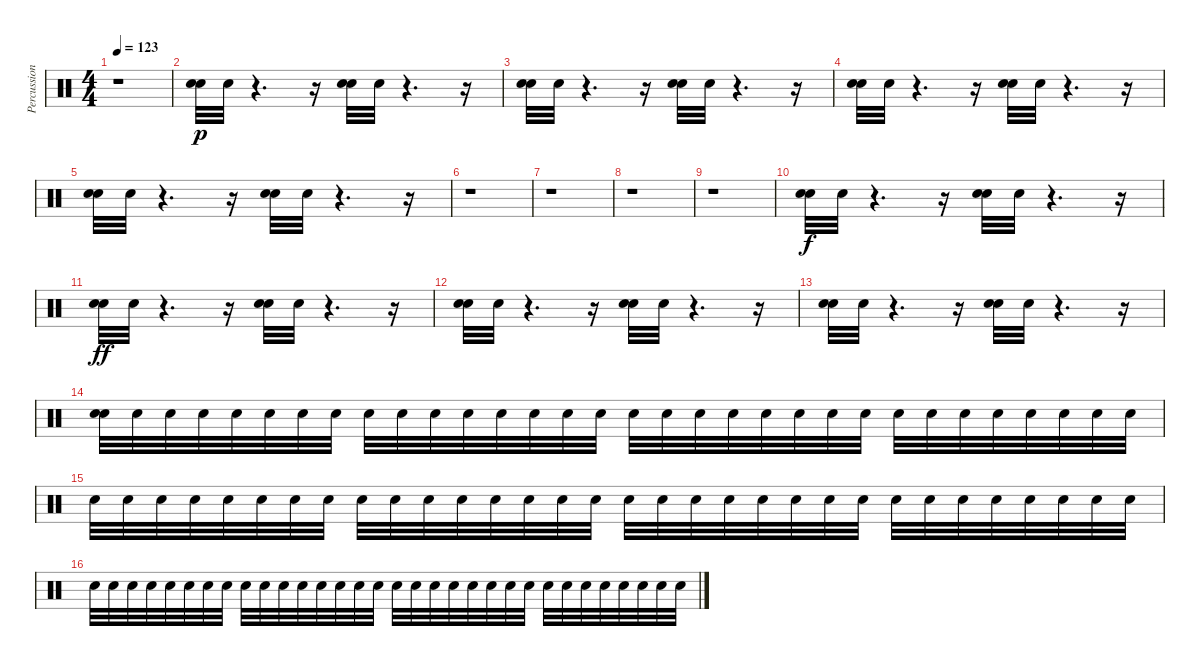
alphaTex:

\track ("Percussion" "Percussion") {instrument percussion}
\staff {score}
\articulation defaults
\ts (4 4)
\tempo 123
\clef neutral
\ks c
r.1{dy mp} |
("Snare (hit) 2" "Snare (hit) 2").32{dy p} "Snare (hit) 2".32 r.4{d} r.16 ("Snare (hit) 2" "Snare (hit) 2").32 "Snare (hit) 2".32 r.4{d} r.16 |
("Snare (hit) 2" "Snare (hit) 2").32 "Snare (hit) 2".32 r.4{d} r.16 ("Snare (hit) 2" "Snare (hit) 2").32 "Snare (hit) 2".32 r.4{d} r.16 |
("Snare (hit) 2" "Snare (hit) 2").32 "Snare (hit) 2".32 r.4{d} r.16 ("Snare (hit) 2" "Snare (hit) 2").32 "Snare (hit) 2".32 r.4{d} r.16 |
("Snare (hit) 2" "Snare (hit) 2").32 "Snare (hit) 2".32 r.4{d} r.16 ("Snare (hit) 2" "Snare (hit) 2").32 "Snare (hit) 2".32 r.4{d} r.16 |
r.1 |
r.1 |
r.1 |
r.1 |
("Snare (hit) 2" "Snare (hit) 2").32{dy f} "Snare (hit) 2".32 r.4{d} r.16 ("Snare (hit) 2" "Snare (hit) 2").32 "Snare (hit) 2".32 r.4{d} r.16 |
("Snare (hit) 2" "Snare (hit) 2").32{dy ff} "Snare (hit) 2".32 r.4{d} r.16 ("Snare (hit) 2" "Snare (hit) 2").32 "Snare (hit) 2".32 r.4{d} r.16 |
("Snare (hit) 2" "Snare (hit) 2").32 "Snare (hit) 2".32 r.4{d} r.16 ("Snare (hit) 2" "Snare (hit) 2").32 "Snare (hit) 2".32 r.4{d} r.16 |
("Snare (hit) 2" "Snare (hit) 2").32 "Snare (hit) 2".32 r.4{d} r.16 ("Snare (hit) 2" "Snare (hit) 2").32 "Snare (hit) 2".32 r.4{d} r.16 |
("Snare (hit) 2" "Snare (hit) 2").32 "Snare (hit) 2".32 "Snare (hit) 2".32 "Snare (hit) 2".32 "Snare (hit) 2".32 "Snare (hit) 2".32 "Snare (hit) 2".32 "Snare (hit) 2".32 "Snare (hit) 2".32 "Snare (hit) 2".32 "Snare (hit) 2".32 "Snare (hit) 2".32 "Snare (hit) 2".32 "Snare (hit) 2".32 "Snare (hit) 2".32 "Snare (hit) 2".32 "Snare (hit) 2".32 "Snare (hit) 2".32 "Snare (hit) 2".32 "Snare (hit) 2".32 "Snare (hit) 2".32 "Snare (hit) 2".32 "Snare (hit) 2".32 "Snare (hit) 2".32 "Snare (hit) 2".32 "Snare (hit) 2".32 "Snare (hit) 2".32 "Snare (hit) 2".32 "Snare (hit) 2".32 "Snare (hit) 2".32 "Snare (hit) 2".32 "Snare (hit) 2".32 |
"Snare (hit) 2".32 "Snare (hit) 2".32 "Snare (hit) 2".32 "Snare (hit) 2".32 "Snare (hit) 2".32 "Snare (hit) 2".32 "Snare (hit) 2".32 "Snare (hit) 2".32 "Snare (hit) 2".32 "Snare (hit) 2".32 "Snare (hit) 2".32 "Snare (hit) 2".32 "Snare (hit) 2".32 "Snare (hit) 2".32 "Snare (hit) 2".32 "Snare (hit) 2".32 "Snare (hit) 2".32 "Snare (hit) 2".32 "Snare (hit) 2".32 "Snare (hit) 2".32 "Snare (hit) 2".32 "Snare (hit) 2".32 "Snare (hit) 2".32 "Snare (hit) 2".32 "Snare (hit) 2".32 "Snare (hit) 2".32 "Snare (hit) 2".32 "Snare (hit) 2".32 "Snare (hit) 2".32 "Snare (hit) 2".32 "Snare (hit) 2".32 "Snare (hit) 2".32 |
"Snare (hit) 2".32 "Snare (hit) 2".32 "Snare (hit) 2".32 "Snare (hit) 2".32 "Snare (hit) 2".32 "Snare (hit) 2".32 "Snare (hit) 2".32 "Snare (hit) 2".32 "Snare (hit) 2".32 "Snare (hit) 2".32 "Snare (hit) 2".32 "Snare (hit) 2".32 "Snare (hit) 2".32 "Snare (hit) 2".32 "Snare (hit) 2".32 "Snare (hit) 2".32 "Snare (hit) 2".32 "Snare (hit) 2".32 "Snare (hit) 2".32 "Snare (hit) 2".32 "Snare (hit) 2".32 "Snare (hit) 2".32 "Snare (hit) 2".32 "Snare (hit) 2".32 "Snare (hit) 2".32 "Snare (hit) 2".32 "Snare (hit) 2".32 "Snare (hit) 2".32 "Snare (hit) 2".32 "Snare (hit) 2".32 "Snare (hit) 2".32 "Snare (hit) 2".32
